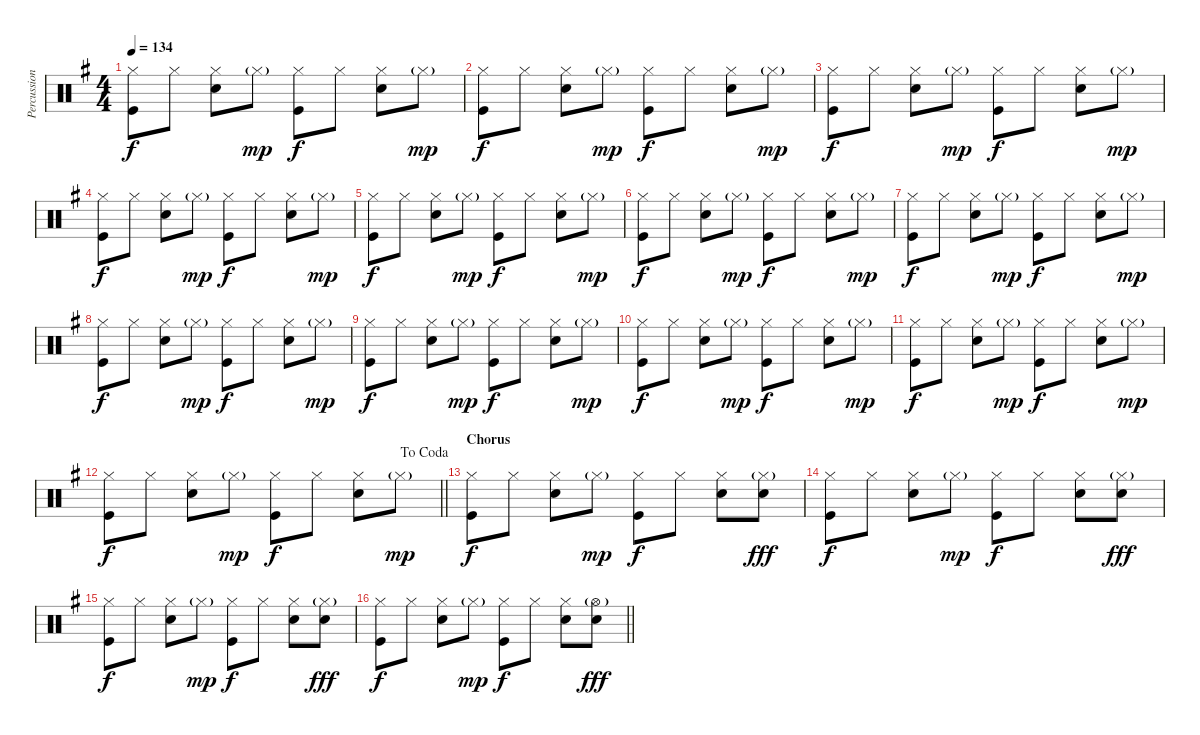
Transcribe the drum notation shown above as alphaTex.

\track ("Percussion" "Percussion") {instrument percussion}
\staff {score}
\articulation defaults
\ts (4 4)
\tempo 134
\clef neutral
\ks g
("Hi-Hat (closed)" "Kick (hit)").8{dy f} "Hi-Hat (closed)".8 ("Hi-Hat (closed)" "Snare (hit) 2").8 "Hi-Hat (closed)"{g}.8{dy mp} ("Hi-Hat (closed)" "Kick (hit)").8{dy f} "Hi-Hat (closed)".8 ("Hi-Hat (closed)" "Snare (hit) 2").8 "Hi-Hat (closed)"{g}.8{dy mp} |
("Hi-Hat (closed)" "Kick (hit)").8{dy f} "Hi-Hat (closed)".8 ("Hi-Hat (closed)" "Snare (hit) 2").8 "Hi-Hat (closed)"{g}.8{dy mp} ("Hi-Hat (closed)" "Kick (hit)").8{dy f} "Hi-Hat (closed)".8 ("Hi-Hat (closed)" "Snare (hit) 2").8 "Hi-Hat (closed)"{g}.8{dy mp} |
("Hi-Hat (closed)" "Kick (hit)").8{dy f} "Hi-Hat (closed)".8 ("Hi-Hat (closed)" "Snare (hit) 2").8 "Hi-Hat (closed)"{g}.8{dy mp} ("Hi-Hat (closed)" "Kick (hit)").8{dy f} "Hi-Hat (closed)".8 ("Hi-Hat (closed)" "Snare (hit) 2").8 "Hi-Hat (closed)"{g}.8{dy mp} |
("Hi-Hat (closed)" "Kick (hit)").8{dy f} "Hi-Hat (closed)".8 ("Hi-Hat (closed)" "Snare (hit) 2").8 "Hi-Hat (closed)"{g}.8{dy mp} ("Hi-Hat (closed)" "Kick (hit)").8{dy f} "Hi-Hat (closed)".8 ("Hi-Hat (closed)" "Snare (hit) 2").8 "Hi-Hat (closed)"{g}.8{dy mp} |
("Hi-Hat (closed)" "Kick (hit)").8{dy f} "Hi-Hat (closed)".8 ("Hi-Hat (closed)" "Snare (hit) 2").8 "Hi-Hat (closed)"{g}.8{dy mp} ("Hi-Hat (closed)" "Kick (hit)").8{dy f} "Hi-Hat (closed)".8 ("Hi-Hat (closed)" "Snare (hit) 2").8 "Hi-Hat (closed)"{g}.8{dy mp} |
("Hi-Hat (closed)" "Kick (hit)").8{dy f} "Hi-Hat (closed)".8 ("Hi-Hat (closed)" "Snare (hit) 2").8 "Hi-Hat (closed)"{g}.8{dy mp} ("Hi-Hat (closed)" "Kick (hit)").8{dy f} "Hi-Hat (closed)".8 ("Hi-Hat (closed)" "Snare (hit) 2").8 "Hi-Hat (closed)"{g}.8{dy mp} |
("Hi-Hat (closed)" "Kick (hit)").8{dy f} "Hi-Hat (closed)".8 ("Hi-Hat (closed)" "Snare (hit) 2").8 "Hi-Hat (closed)"{g}.8{dy mp} ("Hi-Hat (closed)" "Kick (hit)").8{dy f} "Hi-Hat (closed)".8 ("Hi-Hat (closed)" "Snare (hit) 2").8 "Hi-Hat (closed)"{g}.8{dy mp} |
("Hi-Hat (closed)" "Kick (hit)").8{dy f} "Hi-Hat (closed)".8 ("Hi-Hat (closed)" "Snare (hit) 2").8 "Hi-Hat (closed)"{g}.8{dy mp} ("Hi-Hat (closed)" "Kick (hit)").8{dy f} "Hi-Hat (closed)".8 ("Hi-Hat (closed)" "Snare (hit) 2").8 "Hi-Hat (closed)"{g}.8{dy mp} |
("Hi-Hat (closed)" "Kick (hit)").8{dy f} "Hi-Hat (closed)".8 ("Hi-Hat (closed)" "Snare (hit) 2").8 "Hi-Hat (closed)"{g}.8{dy mp} ("Hi-Hat (closed)" "Kick (hit)").8{dy f} "Hi-Hat (closed)".8 ("Hi-Hat (closed)" "Snare (hit) 2").8 "Hi-Hat (closed)"{g}.8{dy mp} |
("Hi-Hat (closed)" "Kick (hit)").8{dy f} "Hi-Hat (closed)".8 ("Hi-Hat (closed)" "Snare (hit) 2").8 "Hi-Hat (closed)"{g}.8{dy mp} ("Hi-Hat (closed)" "Kick (hit)").8{dy f} "Hi-Hat (closed)".8 ("Hi-Hat (closed)" "Snare (hit) 2").8 "Hi-Hat (closed)"{g}.8{dy mp} |
("Hi-Hat (closed)" "Kick (hit)").8{dy f} "Hi-Hat (closed)".8 ("Hi-Hat (closed)" "Snare (hit) 2").8 "Hi-Hat (closed)"{g}.8{dy mp} ("Hi-Hat (closed)" "Kick (hit)").8{dy f} "Hi-Hat (closed)".8 ("Hi-Hat (closed)" "Snare (hit) 2").8 "Hi-Hat (closed)"{g}.8{dy mp} |
\jump dacoda
\barLineRight lightlight
("Hi-Hat (closed)" "Kick (hit)").8{dy f} "Hi-Hat (closed)".8 ("Hi-Hat (closed)" "Snare (hit) 2").8 "Hi-Hat (closed)"{g}.8{dy mp} ("Hi-Hat (closed)" "Kick (hit)").8{dy f} "Hi-Hat (closed)".8 ("Hi-Hat (closed)" "Snare (hit) 2").8 "Hi-Hat (closed)"{g}.8{dy mp} |
\section ("" "Chorus")
("Hi-Hat (closed)" "Kick (hit)").8{dy f} "Hi-Hat (closed)".8 ("Hi-Hat (closed)" "Snare (hit) 2").8 "Hi-Hat (closed)"{g}.8{dy mp} ("Hi-Hat (closed)" "Kick (hit)").8{dy f} "Hi-Hat (closed)".8 ("Hi-Hat (closed)" "Snare (hit) 2").8 ("Hi-Hat (closed)"{g} "Snare (hit) 2").8{dy fff} |
("Hi-Hat (closed)" "Kick (hit)").8{dy f} "Hi-Hat (closed)".8 ("Hi-Hat (closed)" "Snare (hit) 2").8 "Hi-Hat (closed)"{g}.8{dy mp} ("Hi-Hat (closed)" "Kick (hit)").8{dy f} "Hi-Hat (closed)".8 ("Hi-Hat (closed)" "Snare (hit) 2").8 ("Hi-Hat (closed)"{g} "Snare (hit) 2").8{dy fff} |
("Hi-Hat (closed)" "Kick (hit)").8{dy f} "Hi-Hat (closed)".8 ("Hi-Hat (closed)" "Snare (hit) 2").8 "Hi-Hat (closed)"{g}.8{dy mp} ("Hi-Hat (closed)" "Kick (hit)").8{dy f} "Hi-Hat (closed)".8 ("Hi-Hat (closed)" "Snare (hit) 2").8 ("Hi-Hat (closed)"{g} "Snare (hit) 2").8{dy fff} |
\barLineRight lightlight
("Hi-Hat (closed)" "Kick (hit)").8{dy f} "Hi-Hat (closed)".8 ("Hi-Hat (closed)" "Snare (hit) 2").8 "Hi-Hat (closed)"{g}.8{dy mp} ("Hi-Hat (closed)" "Kick (hit)").8{dy f} "Hi-Hat (closed)".8 ("Hi-Hat (closed)" "Snare (hit) 2").8 ("Hi-Hat (open)"{g} "Snare (hit) 2").8{dy fff}
